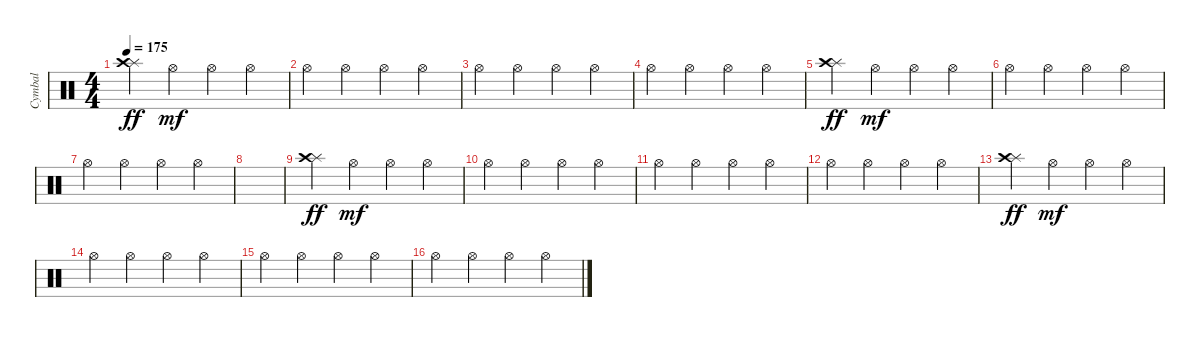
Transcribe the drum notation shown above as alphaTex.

\track ("Cymbal" "Cymbal") {instrument percussion}
\staff {score}
\articulation defaults
\ts (4 4)
\tempo 175
\clef neutral
\ks c
("Splash (hit)" "Crash high (hit)").4{dy ff} "Hi-Hat (open)".4{dy mf} "Hi-Hat (open)".4 "Hi-Hat (open)".4 |
"Hi-Hat (open)".4 "Hi-Hat (open)".4 "Hi-Hat (open)".4 "Hi-Hat (open)".4 |
"Hi-Hat (open)".4 "Hi-Hat (open)".4 "Hi-Hat (open)".4 "Hi-Hat (open)".4 |
"Hi-Hat (open)".4 "Hi-Hat (open)".4 "Hi-Hat (open)".4 "Hi-Hat (open)".4 |
("Splash (hit)" "Crash high (hit)").4{dy ff} "Hi-Hat (open)".4{dy mf} "Hi-Hat (open)".4 "Hi-Hat (open)".4 |
"Hi-Hat (open)".4 "Hi-Hat (open)".4 "Hi-Hat (open)".4 "Hi-Hat (open)".4 |
"Hi-Hat (open)".4 "Hi-Hat (open)".4 "Hi-Hat (open)".4 "Hi-Hat (open)".4 |
|
("Splash (hit)" "Crash high (hit)").4{dy ff} "Hi-Hat (open)".4{dy mf} "Hi-Hat (open)".4 "Hi-Hat (open)".4 |
"Hi-Hat (open)".4 "Hi-Hat (open)".4 "Hi-Hat (open)".4 "Hi-Hat (open)".4 |
"Hi-Hat (open)".4 "Hi-Hat (open)".4 "Hi-Hat (open)".4 "Hi-Hat (open)".4 |
"Hi-Hat (open)".4 "Hi-Hat (open)".4 "Hi-Hat (open)".4 "Hi-Hat (open)".4 |
("Splash (hit)" "Crash high (hit)").4{dy ff} "Hi-Hat (open)".4{dy mf} "Hi-Hat (open)".4 "Hi-Hat (open)".4 |
"Hi-Hat (open)".4 "Hi-Hat (open)".4 "Hi-Hat (open)".4 "Hi-Hat (open)".4 |
"Hi-Hat (open)".4 "Hi-Hat (open)".4 "Hi-Hat (open)".4 "Hi-Hat (open)".4 |
"Hi-Hat (open)".4 "Hi-Hat (open)".4 "Hi-Hat (open)".4 "Hi-Hat (open)".4
